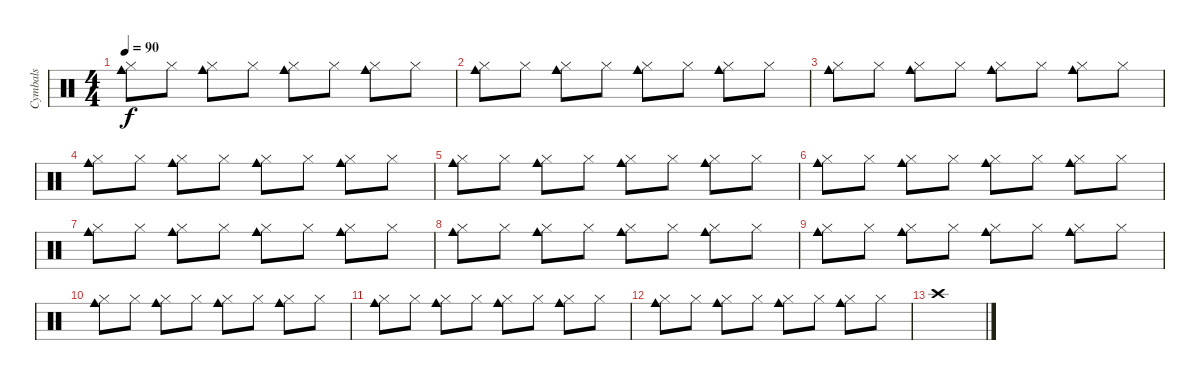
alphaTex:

\track ("Cymbals" "Cymbals") {instrument percussion}
\staff {score}
\articulation defaults
\ts (4 4)
\tempo 90
\clef neutral
\ks c
("Cowbell medium (hit)" "Hi-Hat (closed)").8{dy f} "Hi-Hat (closed)".8 ("Cowbell medium (hit)" "Hi-Hat (closed)").8 "Hi-Hat (closed)".8 ("Cowbell medium (hit)" "Hi-Hat (closed)").8 "Hi-Hat (closed)".8 ("Cowbell medium (hit)" "Hi-Hat (closed)").8 "Hi-Hat (closed)".8 |
("Cowbell medium (hit)" "Hi-Hat (closed)").8 "Hi-Hat (closed)".8 ("Cowbell medium (hit)" "Hi-Hat (closed)").8 "Hi-Hat (closed)".8 ("Cowbell medium (hit)" "Hi-Hat (closed)").8 "Hi-Hat (closed)".8 ("Cowbell medium (hit)" "Hi-Hat (closed)").8 "Hi-Hat (closed)".8 |
("Cowbell medium (hit)" "Hi-Hat (closed)").8 "Hi-Hat (closed)".8 ("Cowbell medium (hit)" "Hi-Hat (closed)").8 "Hi-Hat (closed)".8 ("Cowbell medium (hit)" "Hi-Hat (closed)").8 "Hi-Hat (closed)".8 ("Cowbell medium (hit)" "Hi-Hat (closed)").8 "Hi-Hat (closed)".8 |
("Cowbell medium (hit)" "Hi-Hat (closed)").8 "Hi-Hat (closed)".8 ("Cowbell medium (hit)" "Hi-Hat (closed)").8 "Hi-Hat (closed)".8 ("Cowbell medium (hit)" "Hi-Hat (closed)").8 "Hi-Hat (closed)".8 ("Cowbell medium (hit)" "Hi-Hat (closed)").8 "Hi-Hat (closed)".8 |
("Cowbell medium (hit)" "Hi-Hat (closed)").8 "Hi-Hat (closed)".8 ("Cowbell medium (hit)" "Hi-Hat (closed)").8 "Hi-Hat (closed)".8 ("Cowbell medium (hit)" "Hi-Hat (closed)").8 "Hi-Hat (closed)".8 ("Cowbell medium (hit)" "Hi-Hat (closed)").8 "Hi-Hat (closed)".8 |
("Cowbell medium (hit)" "Hi-Hat (closed)").8 "Hi-Hat (closed)".8 ("Cowbell medium (hit)" "Hi-Hat (closed)").8 "Hi-Hat (closed)".8 ("Cowbell medium (hit)" "Hi-Hat (closed)").8 "Hi-Hat (closed)".8 ("Cowbell medium (hit)" "Hi-Hat (closed)").8 "Hi-Hat (closed)".8 |
("Cowbell medium (hit)" "Hi-Hat (closed)").8 "Hi-Hat (closed)".8 ("Cowbell medium (hit)" "Hi-Hat (closed)").8 "Hi-Hat (closed)".8 ("Cowbell medium (hit)" "Hi-Hat (closed)").8 "Hi-Hat (closed)".8 ("Cowbell medium (hit)" "Hi-Hat (closed)").8 "Hi-Hat (closed)".8 |
("Cowbell medium (hit)" "Hi-Hat (closed)").8 "Hi-Hat (closed)".8 ("Cowbell medium (hit)" "Hi-Hat (closed)").8 "Hi-Hat (closed)".8 ("Cowbell medium (hit)" "Hi-Hat (closed)").8 "Hi-Hat (closed)".8 ("Cowbell medium (hit)" "Hi-Hat (closed)").8 "Hi-Hat (closed)".8 |
("Cowbell medium (hit)" "Hi-Hat (closed)").8 "Hi-Hat (closed)".8 ("Cowbell medium (hit)" "Hi-Hat (closed)").8 "Hi-Hat (closed)".8 ("Cowbell medium (hit)" "Hi-Hat (closed)").8 "Hi-Hat (closed)".8 ("Cowbell medium (hit)" "Hi-Hat (closed)").8 "Hi-Hat (closed)".8 |
("Cowbell medium (hit)" "Hi-Hat (closed)").8 "Hi-Hat (closed)".8 ("Cowbell medium (hit)" "Hi-Hat (closed)").8 "Hi-Hat (closed)".8 ("Cowbell medium (hit)" "Hi-Hat (closed)").8 "Hi-Hat (closed)".8 ("Cowbell medium (hit)" "Hi-Hat (closed)").8 "Hi-Hat (closed)".8 |
("Cowbell medium (hit)" "Hi-Hat (closed)").8 "Hi-Hat (closed)".8 ("Cowbell medium (hit)" "Hi-Hat (closed)").8 "Hi-Hat (closed)".8 ("Cowbell medium (hit)" "Hi-Hat (closed)").8 "Hi-Hat (closed)".8 ("Cowbell medium (hit)" "Hi-Hat (closed)").8 "Hi-Hat (closed)".8 |
("Cowbell medium (hit)" "Hi-Hat (closed)").8 "Hi-Hat (closed)".8 ("Cowbell medium (hit)" "Hi-Hat (closed)").8 "Hi-Hat (closed)".8 ("Cowbell medium (hit)" "Hi-Hat (closed)").8 "Hi-Hat (closed)".8 ("Cowbell medium (hit)" "Hi-Hat (closed)").8 "Hi-Hat (closed)".8 |
"Crash high (hit)".1
